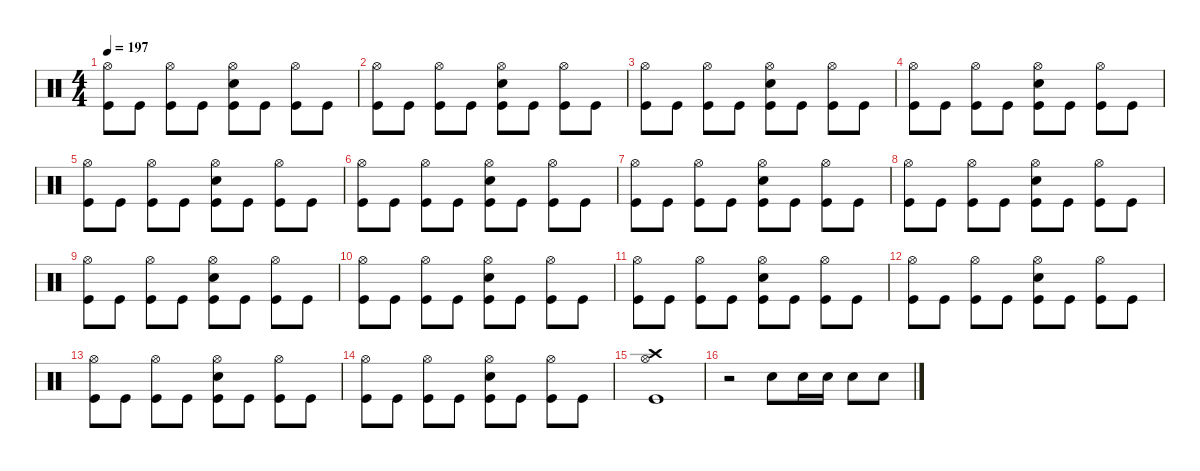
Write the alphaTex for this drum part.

\defaultSystemsLayout 4
\hideDynamics
\bracketExtendMode nobrackets
\singleTrackTrackNamePolicy hidden
\multiTrackTrackNamePolicy hidden
\firstSystemTrackNameMode fullname
\firstSystemTrackNameOrientation horizontal
\otherSystemsTrackNameOrientation horizontal
\track ("Drums" "drm.") {defaultSystemsLayout 4 instrument percussion}
\staff {score}
\articulation defaults
\ts (4 4)
\tempo 197
\clef neutral
\ks c
("Hi-Hat (open)" "Kick (hit)").8{dy f beam Down} "Kick (hit)".8{beam Down} ("Hi-Hat (open)" "Kick (hit)").8{beam Down} "Kick (hit)".8{beam Down} ("Hi-Hat (open)" "Snare (hit) 2" "Kick (hit)").8{beam Down} "Kick (hit)".8{beam Down} ("Hi-Hat (open)" "Kick (hit)").8{beam Down} "Kick (hit)".8{beam Down} |
("Hi-Hat (open)" "Kick (hit)").8{beam Down} "Kick (hit)".8{beam Down} ("Hi-Hat (open)" "Kick (hit)").8{beam Down} "Kick (hit)".8{beam Down} ("Hi-Hat (open)" "Snare (hit) 2" "Kick (hit)").8{beam Down} "Kick (hit)".8{beam Down} ("Hi-Hat (open)" "Kick (hit)").8{beam Down} "Kick (hit)".8{beam Down} |
("Hi-Hat (open)" "Kick (hit)").8{beam Down} "Kick (hit)".8{beam Down} ("Hi-Hat (open)" "Kick (hit)").8{beam Down} "Kick (hit)".8{beam Down} ("Hi-Hat (open)" "Snare (hit) 2" "Kick (hit)").8{beam Down} "Kick (hit)".8{beam Down} ("Hi-Hat (open)" "Kick (hit)").8{beam Down} "Kick (hit)".8{beam Down} |
("Hi-Hat (open)" "Kick (hit)").8{beam Down} "Kick (hit)".8{beam Down} ("Hi-Hat (open)" "Kick (hit)").8{beam Down} "Kick (hit)".8{beam Down} ("Hi-Hat (open)" "Snare (hit) 2" "Kick (hit)").8{beam Down} "Kick (hit)".8{beam Down} ("Hi-Hat (open)" "Kick (hit)").8{beam Down} "Kick (hit)".8{beam Down} |
("Hi-Hat (open)" "Kick (hit)").8{beam Down} "Kick (hit)".8{beam Down} ("Hi-Hat (open)" "Kick (hit)").8{beam Down} "Kick (hit)".8{beam Down} ("Hi-Hat (open)" "Snare (hit) 2" "Kick (hit)").8{beam Down} "Kick (hit)".8{beam Down} ("Hi-Hat (open)" "Kick (hit)").8{beam Down} "Kick (hit)".8{beam Down} |
("Hi-Hat (open)" "Kick (hit)").8{beam Down} "Kick (hit)".8{beam Down} ("Hi-Hat (open)" "Kick (hit)").8{beam Down} "Kick (hit)".8{beam Down} ("Hi-Hat (open)" "Snare (hit) 2" "Kick (hit)").8{beam Down} "Kick (hit)".8{beam Down} ("Hi-Hat (open)" "Kick (hit)").8{beam Down} "Kick (hit)".8{beam Down} |
("Hi-Hat (open)" "Kick (hit)").8{beam Down} "Kick (hit)".8{beam Down} ("Hi-Hat (open)" "Kick (hit)").8{beam Down} "Kick (hit)".8{beam Down} ("Hi-Hat (open)" "Snare (hit) 2" "Kick (hit)").8{beam Down} "Kick (hit)".8{beam Down} ("Hi-Hat (open)" "Kick (hit)").8{beam Down} "Kick (hit)".8{beam Down} |
("Hi-Hat (open)" "Kick (hit)").8{beam Down} "Kick (hit)".8{beam Down} ("Hi-Hat (open)" "Kick (hit)").8{beam Down} "Kick (hit)".8{beam Down} ("Hi-Hat (open)" "Snare (hit) 2" "Kick (hit)").8{beam Down} "Kick (hit)".8{beam Down} ("Hi-Hat (open)" "Kick (hit)").8{beam Down} "Kick (hit)".8{beam Down} |
("Hi-Hat (open)" "Kick (hit)").8{beam Down} "Kick (hit)".8{beam Down} ("Hi-Hat (open)" "Kick (hit)").8{beam Down} "Kick (hit)".8{beam Down} ("Hi-Hat (open)" "Snare (hit) 2" "Kick (hit)").8{beam Down} "Kick (hit)".8{beam Down} ("Hi-Hat (open)" "Kick (hit)").8{beam Down} "Kick (hit)".8{beam Down} |
("Hi-Hat (open)" "Kick (hit)").8{beam Down} "Kick (hit)".8{beam Down} ("Hi-Hat (open)" "Kick (hit)").8{beam Down} "Kick (hit)".8{beam Down} ("Hi-Hat (open)" "Snare (hit) 2" "Kick (hit)").8{beam Down} "Kick (hit)".8{beam Down} ("Hi-Hat (open)" "Kick (hit)").8{beam Down} "Kick (hit)".8{beam Down} |
("Hi-Hat (open)" "Kick (hit)").8{beam Down} "Kick (hit)".8{beam Down} ("Hi-Hat (open)" "Kick (hit)").8{beam Down} "Kick (hit)".8{beam Down} ("Hi-Hat (open)" "Snare (hit) 2" "Kick (hit)").8{beam Down} "Kick (hit)".8{beam Down} ("Hi-Hat (open)" "Kick (hit)").8{beam Down} "Kick (hit)".8{beam Down} |
("Hi-Hat (open)" "Kick (hit)").8{beam Down} "Kick (hit)".8{beam Down} ("Hi-Hat (open)" "Kick (hit)").8{beam Down} "Kick (hit)".8{beam Down} ("Hi-Hat (open)" "Snare (hit) 2" "Kick (hit)").8{beam Down} "Kick (hit)".8{beam Down} ("Hi-Hat (open)" "Kick (hit)").8{beam Down} "Kick (hit)".8{beam Down} |
("Hi-Hat (open)" "Kick (hit)").8{beam Down} "Kick (hit)".8{beam Down} ("Hi-Hat (open)" "Kick (hit)").8{beam Down} "Kick (hit)".8{beam Down} ("Hi-Hat (open)" "Snare (hit) 2" "Kick (hit)").8{beam Down} "Kick (hit)".8{beam Down} ("Hi-Hat (open)" "Kick (hit)").8{beam Down} "Kick (hit)".8{beam Down} |
("Hi-Hat (open)" "Kick (hit)").8{beam Down} "Kick (hit)".8{beam Down} ("Hi-Hat (open)" "Kick (hit)").8{beam Down} "Kick (hit)".8{beam Down} ("Hi-Hat (open)" "Snare (hit) 2" "Kick (hit)").8{beam Down} "Kick (hit)".8{beam Down} ("Hi-Hat (open)" "Kick (hit)").8{beam Down} "Kick (hit)".8{beam Down} |
("Crash high (hit)" "Hi-Hat (open)" "Kick (hit)").1{beam Down} |
r.2{beam Down} "Snare (hit) 2".8{dy mf beam Down} "Snare (hit) 2".16{dy mp beam Down} "Snare (hit) 2".16{beam Down} "Snare (hit) 2".8{dy f beam Down} "Snare (hit) 2".8{beam Down}
